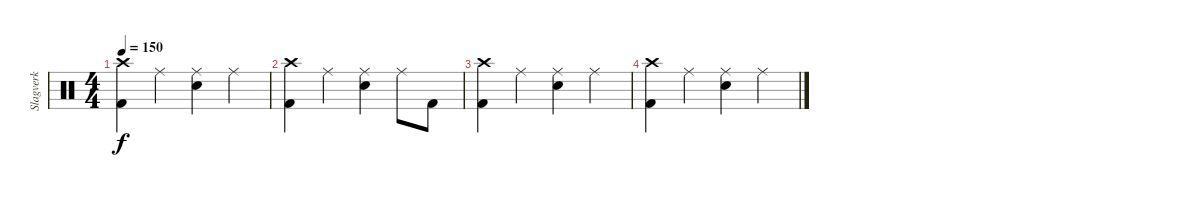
\track ("Slagverk" "Slagverk") {instrument percussion}
\staff {score}
\articulation defaults
\ts (4 4)
\tempo 150
\clef neutral
\ks c
("Crash high (hit)" "Kick (hit) 2").4{dy f} "Ride (middle)".4 ("Ride (middle)" "Electric Snare (hit)").4 "Ride (middle)".4 |
("Crash high (hit)" "Kick (hit) 2").4 "Ride (middle)".4 ("Ride (middle)" "Electric Snare (hit)").4 "Ride (middle)".8 "Kick (hit) 2".8 |
("Crash high (hit)" "Kick (hit) 2").4 "Ride (middle)".4 ("Ride (middle)" "Electric Snare (hit)").4 "Ride (middle)".4 |
("Crash high (hit)" "Kick (hit) 2").4 "Ride (middle)".4 ("Ride (middle)" "Electric Snare (hit)").4 "Ride (middle)".4
